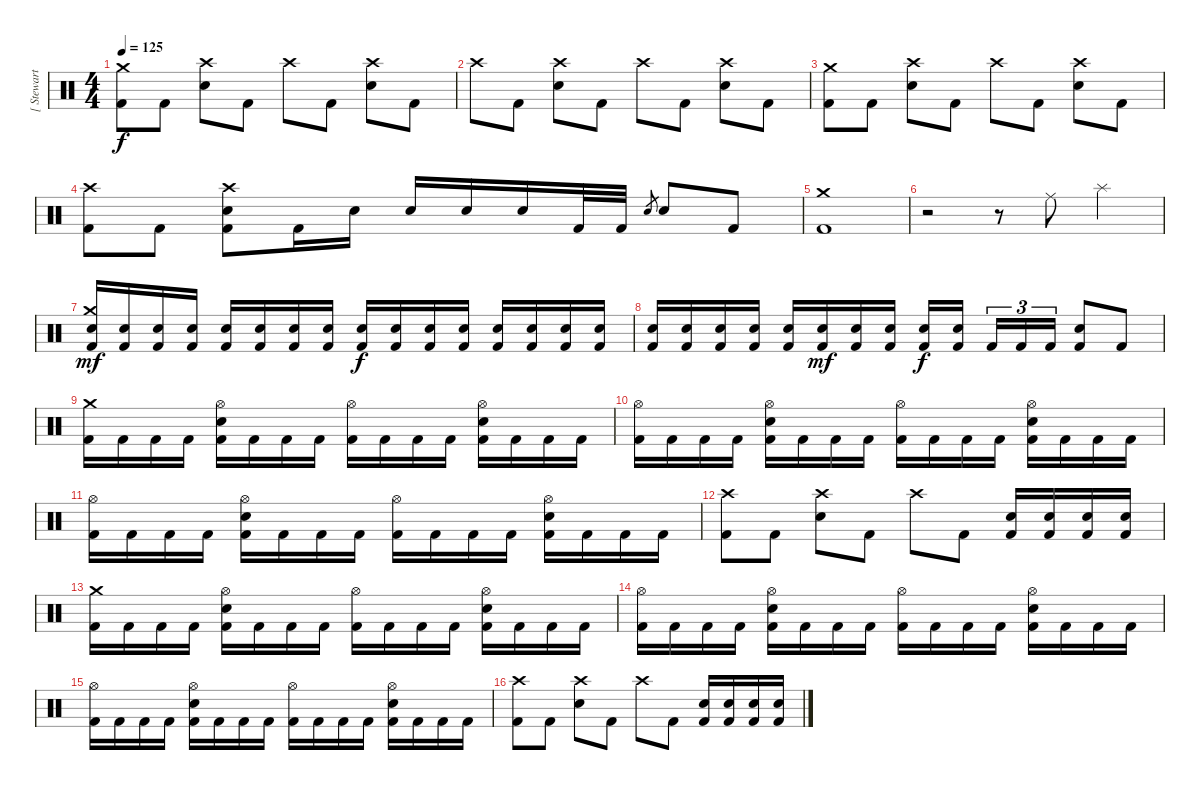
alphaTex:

\track ("[ Stewart ]" "[ Stewart ") {instrument percussion}
\staff {score}
\articulation defaults
\ts (4 4)
\tempo 125
\clef neutral
\ks c
("Kick (hit) 2" "Crash medium (hit)").8{dy f} "Kick (hit) 2".8 ("Electric Snare (hit)" "Crash high (hit)").8 "Kick (hit) 2".8 "Crash high (hit)".8 "Kick (hit) 2".8 ("Electric Snare (hit)" "Crash high (hit)").8 "Kick (hit) 2".8 |
"Crash high (hit)".8 "Kick (hit) 2".8 ("Electric Snare (hit)" "Crash high (hit)").8 "Kick (hit) 2".8 "Crash high (hit)".8 "Kick (hit) 2".8 ("Electric Snare (hit)" "Crash high (hit)").8 "Kick (hit) 2".8 |
("Kick (hit) 2" "Crash medium (hit)").8 "Kick (hit) 2".8 ("Electric Snare (hit)" "Crash high (hit)").8 "Kick (hit) 2".8 "Crash high (hit)".8 "Kick (hit) 2".8 ("Electric Snare (hit)" "Crash high (hit)").8 "Kick (hit) 2".8 |
("Kick (hit) 2" "Crash high (hit)").8 "Kick (hit) 2".8 ("Kick (hit) 2" "Electric Snare (hit)" "Crash high (hit)").8 "Kick (hit) 2".16 "Electric Snare (hit)".16 "Electric Snare (hit)".16 "Electric Snare (hit)".16 "Electric Snare (hit)".16 "Kick (hit) 2".32 "Kick (hit) 2".32 "Electric Snare (hit)".8{gr} "Electric Snare (hit)".8 "Kick (hit) 2".8 |
("Kick (hit) 2" "Crash medium (hit)").1 |
r.2 r.8 "Ride (middle)".8 "Splash (hit)".4 |
("Kick (hit) 2" "Electric Snare (hit)" "Crash medium (hit)").16{dy mf} ("Kick (hit) 2" "Electric Snare (hit)").16 ("Kick (hit) 2" "Electric Snare (hit)").16 ("Kick (hit) 2" "Electric Snare (hit)").16 ("Kick (hit) 2" "Electric Snare (hit)").16 ("Kick (hit) 2" "Electric Snare (hit)").16 ("Kick (hit) 2" "Electric Snare (hit)").16 ("Kick (hit) 2" "Electric Snare (hit)").16 ("Kick (hit) 2" "Electric Snare (hit)").16{dy f} ("Kick (hit) 2" "Electric Snare (hit)").16 ("Kick (hit) 2" "Electric Snare (hit)").16 ("Kick (hit) 2" "Electric Snare (hit)").16 ("Kick (hit) 2" "Electric Snare (hit)").16 ("Kick (hit) 2" "Electric Snare (hit)").16 ("Kick (hit) 2" "Electric Snare (hit)").16 ("Kick (hit) 2" "Electric Snare (hit)").16 |
("Kick (hit) 2" "Electric Snare (hit)").16 ("Kick (hit) 2" "Electric Snare (hit)").16 ("Kick (hit) 2" "Electric Snare (hit)").16 ("Kick (hit) 2" "Electric Snare (hit)").16 ("Kick (hit) 2" "Electric Snare (hit)").16 ("Kick (hit) 2" "Electric Snare (hit)").16{dy mf} ("Kick (hit) 2" "Electric Snare (hit)").16 ("Kick (hit) 2" "Electric Snare (hit)").16 ("Kick (hit) 2" "Electric Snare (hit)").16{dy f} ("Kick (hit) 2" "Electric Snare (hit)").16 "Kick (hit) 2".16{tu (3 2)} "Kick (hit) 2".16{tu (3 2)} "Kick (hit) 2".16{tu (3 2)} ("Kick (hit) 2" "Electric Snare (hit)").8 "Kick (hit) 2".8 |
("Kick (hit) 2" "Crash medium (hit)").16 "Kick (hit) 2".16 "Kick (hit) 2".16 "Kick (hit) 2".16 ("Kick (hit) 2" "Hi-Hat (open)" "Electric Snare (hit)").16 "Kick (hit) 2".16 "Kick (hit) 2".16 "Kick (hit) 2".16 ("Kick (hit) 2" "Hi-Hat (open)").16 "Kick (hit) 2".16 "Kick (hit) 2".16 "Kick (hit) 2".16 ("Kick (hit) 2" "Hi-Hat (open)" "Electric Snare (hit)").16 "Kick (hit) 2".16 "Kick (hit) 2".16 "Kick (hit) 2".16 |
("Kick (hit) 2" "Hi-Hat (open)").16 "Kick (hit) 2".16 "Kick (hit) 2".16 "Kick (hit) 2".16 ("Kick (hit) 2" "Hi-Hat (open)" "Electric Snare (hit)").16 "Kick (hit) 2".16 "Kick (hit) 2".16 "Kick (hit) 2".16 ("Kick (hit) 2" "Hi-Hat (open)").16 "Kick (hit) 2".16 "Kick (hit) 2".16 "Kick (hit) 2".16 ("Kick (hit) 2" "Hi-Hat (open)" "Electric Snare (hit)").16 "Kick (hit) 2".16 "Kick (hit) 2".16 "Kick (hit) 2".16 |
("Kick (hit) 2" "Hi-Hat (open)").16 "Kick (hit) 2".16 "Kick (hit) 2".16 "Kick (hit) 2".16 ("Kick (hit) 2" "Hi-Hat (open)" "Electric Snare (hit)").16 "Kick (hit) 2".16 "Kick (hit) 2".16 "Kick (hit) 2".16 ("Kick (hit) 2" "Hi-Hat (open)").16 "Kick (hit) 2".16 "Kick (hit) 2".16 "Kick (hit) 2".16 ("Kick (hit) 2" "Hi-Hat (open)" "Electric Snare (hit)").16 "Kick (hit) 2".16 "Kick (hit) 2".16 "Kick (hit) 2".16 |
("Kick (hit) 2" "Crash high (hit)").8 "Kick (hit) 2".8 ("Electric Snare (hit)" "Crash high (hit)").8 "Kick (hit) 2".8 "Crash high (hit)".8 "Kick (hit) 2".8 ("Electric Snare (hit)" "Kick (hit) 2").16 ("Electric Snare (hit)" "Kick (hit) 2").16 ("Electric Snare (hit)" "Kick (hit) 2").16 ("Electric Snare (hit)" "Kick (hit) 2").16 |
("Kick (hit) 2" "Crash medium (hit)").16 "Kick (hit) 2".16 "Kick (hit) 2".16 "Kick (hit) 2".16 ("Kick (hit) 2" "Hi-Hat (open)" "Electric Snare (hit)").16 "Kick (hit) 2".16 "Kick (hit) 2".16 "Kick (hit) 2".16 ("Kick (hit) 2" "Hi-Hat (open)").16 "Kick (hit) 2".16 "Kick (hit) 2".16 "Kick (hit) 2".16 ("Kick (hit) 2" "Hi-Hat (open)" "Electric Snare (hit)").16 "Kick (hit) 2".16 "Kick (hit) 2".16 "Kick (hit) 2".16 |
("Kick (hit) 2" "Hi-Hat (open)").16 "Kick (hit) 2".16 "Kick (hit) 2".16 "Kick (hit) 2".16 ("Kick (hit) 2" "Hi-Hat (open)" "Electric Snare (hit)").16 "Kick (hit) 2".16 "Kick (hit) 2".16 "Kick (hit) 2".16 ("Kick (hit) 2" "Hi-Hat (open)").16 "Kick (hit) 2".16 "Kick (hit) 2".16 "Kick (hit) 2".16 ("Kick (hit) 2" "Hi-Hat (open)" "Electric Snare (hit)").16 "Kick (hit) 2".16 "Kick (hit) 2".16 "Kick (hit) 2".16 |
("Kick (hit) 2" "Hi-Hat (open)").16 "Kick (hit) 2".16 "Kick (hit) 2".16 "Kick (hit) 2".16 ("Kick (hit) 2" "Hi-Hat (open)" "Electric Snare (hit)").16 "Kick (hit) 2".16 "Kick (hit) 2".16 "Kick (hit) 2".16 ("Kick (hit) 2" "Hi-Hat (open)").16 "Kick (hit) 2".16 "Kick (hit) 2".16 "Kick (hit) 2".16 ("Kick (hit) 2" "Hi-Hat (open)" "Electric Snare (hit)").16 "Kick (hit) 2".16 "Kick (hit) 2".16 "Kick (hit) 2".16 |
("Kick (hit) 2" "Crash high (hit)").8 "Kick (hit) 2".8 ("Electric Snare (hit)" "Crash high (hit)").8 "Kick (hit) 2".8 "Crash high (hit)".8 "Kick (hit) 2".8 ("Electric Snare (hit)" "Kick (hit) 2").16 ("Electric Snare (hit)" "Kick (hit) 2").16 ("Electric Snare (hit)" "Kick (hit) 2").16 ("Electric Snare (hit)" "Kick (hit) 2").16
